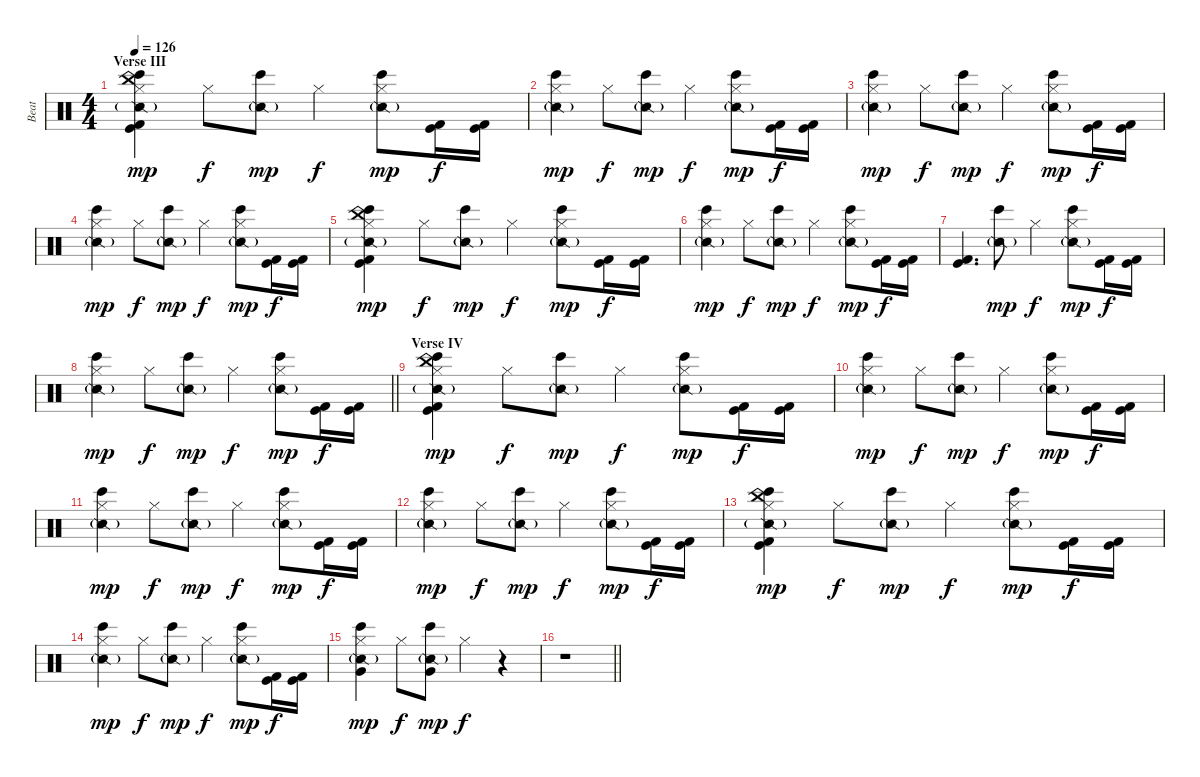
\track ("Beat" "Beat") {instrument percussion}
\staff {score}
\articulation defaults
\ts (4 4)
\section ("" "Verse III")
\tempo 126
\clef neutral
\ks c
("China (hit)" "Hi-Hat (closed)" "Bongo High (hit)" "Snare (side stick) 2"{g} "Kick (hit)" "Kick (hit) 2").4{dy mp} "Hi-Hat (closed)".8{dy f} ("Bongo High (hit)" "Snare (side stick) 2"{g}).8{dy mp} "Hi-Hat (closed)".4{dy f} ("Hi-Hat (closed)" "Bongo High (hit)" "Snare (side stick) 2"{g}).8{dy mp} ("Kick (hit)" "Kick (hit) 2").16{dy f} ("Kick (hit)" "Kick (hit) 2").16 |
("Hi-Hat (closed)" "Bongo High (hit)" "Snare (side stick) 2"{g}).4{dy mp} "Hi-Hat (closed)".8{dy f} ("Bongo High (hit)" "Snare (side stick) 2"{g}).8{dy mp} "Hi-Hat (closed)".4{dy f} ("Hi-Hat (closed)" "Bongo High (hit)" "Snare (side stick) 2"{g}).8{dy mp} ("Kick (hit)" "Kick (hit) 2").16{dy f} ("Kick (hit)" "Kick (hit) 2").16 |
("Hi-Hat (closed)" "Bongo High (hit)" "Snare (side stick) 2"{g}).4{dy mp} "Hi-Hat (closed)".8{dy f} ("Bongo High (hit)" "Snare (side stick) 2"{g}).8{dy mp} "Hi-Hat (closed)".4{dy f} ("Hi-Hat (closed)" "Bongo High (hit)" "Snare (side stick) 2"{g}).8{dy mp} ("Kick (hit)" "Kick (hit) 2").16{dy f} ("Kick (hit)" "Kick (hit) 2").16 |
("Hi-Hat (closed)" "Bongo High (hit)" "Snare (side stick) 2"{g}).4{dy mp} "Hi-Hat (closed)".8{dy f} ("Bongo High (hit)" "Snare (side stick) 2"{g}).8{dy mp} "Hi-Hat (closed)".4{dy f} ("Hi-Hat (closed)" "Bongo High (hit)" "Snare (side stick) 2"{g}).8{dy mp} ("Kick (hit)" "Kick (hit) 2").16{dy f} ("Kick (hit)" "Kick (hit) 2").16 |
("China (hit)" "Hi-Hat (closed)" "Bongo High (hit)" "Snare (side stick) 2"{g} "Kick (hit)" "Kick (hit) 2").4{dy mp} "Hi-Hat (closed)".8{dy f} ("Bongo High (hit)" "Snare (side stick) 2"{g}).8{dy mp} "Hi-Hat (closed)".4{dy f} ("Hi-Hat (closed)" "Bongo High (hit)" "Snare (side stick) 2"{g}).8{dy mp} ("Kick (hit)" "Kick (hit) 2").16{dy f} ("Kick (hit)" "Kick (hit) 2").16 |
("Hi-Hat (closed)" "Bongo High (hit)" "Snare (side stick) 2"{g}).4{dy mp} "Hi-Hat (closed)".8{dy f} ("Bongo High (hit)" "Snare (side stick) 2"{g}).8{dy mp} "Hi-Hat (closed)".4{dy f} ("Hi-Hat (closed)" "Bongo High (hit)" "Snare (side stick) 2"{g}).8{dy mp} ("Kick (hit)" "Kick (hit) 2").16{dy f} ("Kick (hit)" "Kick (hit) 2").16 |
("Kick (hit)" "Kick (hit) 2").4{d} ("Bongo High (hit)" "Snare (side stick) 2"{g}).8{dy mp} "Hi-Hat (closed)".4{dy f} ("Hi-Hat (closed)" "Bongo High (hit)" "Snare (side stick) 2"{g}).8{dy mp} ("Kick (hit)" "Kick (hit) 2").16{dy f} ("Kick (hit)" "Kick (hit) 2").16 |
\barLineRight lightlight
("Hi-Hat (closed)" "Bongo High (hit)" "Snare (side stick) 2"{g}).4{dy mp} "Hi-Hat (closed)".8{dy f} ("Bongo High (hit)" "Snare (side stick) 2"{g}).8{dy mp} "Hi-Hat (closed)".4{dy f} ("Hi-Hat (closed)" "Bongo High (hit)" "Snare (side stick) 2"{g}).8{dy mp} ("Kick (hit)" "Kick (hit) 2").16{dy f} ("Kick (hit)" "Kick (hit) 2").16 |
\section ("" "Verse IV")
("China (hit)" "Hi-Hat (closed)" "Bongo High (hit)" "Snare (side stick) 2"{g} "Kick (hit)" "Kick (hit) 2").4{dy mp} "Hi-Hat (closed)".8{dy f} ("Bongo High (hit)" "Snare (side stick) 2"{g}).8{dy mp} "Hi-Hat (closed)".4{dy f} ("Hi-Hat (closed)" "Bongo High (hit)" "Snare (side stick) 2"{g}).8{dy mp} ("Kick (hit)" "Kick (hit) 2").16{dy f} ("Kick (hit)" "Kick (hit) 2").16 |
("Hi-Hat (closed)" "Bongo High (hit)" "Snare (side stick) 2"{g}).4{dy mp} "Hi-Hat (closed)".8{dy f} ("Bongo High (hit)" "Snare (side stick) 2"{g}).8{dy mp} "Hi-Hat (closed)".4{dy f} ("Hi-Hat (closed)" "Bongo High (hit)" "Snare (side stick) 2"{g}).8{dy mp} ("Kick (hit)" "Kick (hit) 2").16{dy f} ("Kick (hit)" "Kick (hit) 2").16 |
("Hi-Hat (closed)" "Bongo High (hit)" "Snare (side stick) 2"{g}).4{dy mp} "Hi-Hat (closed)".8{dy f} ("Bongo High (hit)" "Snare (side stick) 2"{g}).8{dy mp} "Hi-Hat (closed)".4{dy f} ("Hi-Hat (closed)" "Bongo High (hit)" "Snare (side stick) 2"{g}).8{dy mp} ("Kick (hit)" "Kick (hit) 2").16{dy f} ("Kick (hit)" "Kick (hit) 2").16 |
("Hi-Hat (closed)" "Bongo High (hit)" "Snare (side stick) 2"{g}).4{dy mp} "Hi-Hat (closed)".8{dy f} ("Bongo High (hit)" "Snare (side stick) 2"{g}).8{dy mp} "Hi-Hat (closed)".4{dy f} ("Hi-Hat (closed)" "Bongo High (hit)" "Snare (side stick) 2"{g}).8{dy mp} ("Kick (hit)" "Kick (hit) 2").16{dy f} ("Kick (hit)" "Kick (hit) 2").16 |
("China (hit)" "Hi-Hat (closed)" "Bongo High (hit)" "Snare (side stick) 2"{g} "Kick (hit)" "Kick (hit) 2").4{dy mp} "Hi-Hat (closed)".8{dy f} ("Bongo High (hit)" "Snare (side stick) 2"{g}).8{dy mp} "Hi-Hat (closed)".4{dy f} ("Hi-Hat (closed)" "Bongo High (hit)" "Snare (side stick) 2"{g}).8{dy mp} ("Kick (hit)" "Kick (hit) 2").16{dy f} ("Kick (hit)" "Kick (hit) 2").16 |
("Hi-Hat (closed)" "Bongo High (hit)" "Snare (side stick) 2"{g}).4{dy mp} "Hi-Hat (closed)".8{dy f} ("Bongo High (hit)" "Snare (side stick) 2"{g}).8{dy mp} "Hi-Hat (closed)".4{dy f} ("Hi-Hat (closed)" "Bongo High (hit)" "Snare (side stick) 2"{g}).8{dy mp} ("Kick (hit)" "Kick (hit) 2").16{dy f} ("Kick (hit)" "Kick (hit) 2").16 |
("Hi-Hat (closed)" "Bongo High (hit)" "Snare (side stick) 2"{g} "Very Low Tom (hit)").4{dy mp} "Hi-Hat (closed)".8{dy f} ("Bongo High (hit)" "Snare (side stick) 2"{g} "Very Low Tom (hit)").8{dy mp} "Hi-Hat (closed)".4{dy f} r.4 |
\barLineRight lightlight
r.1
